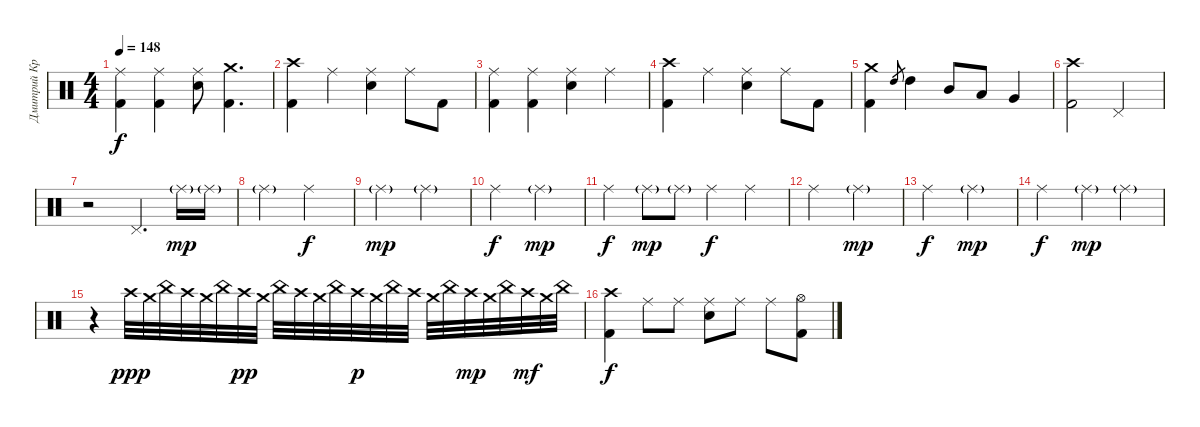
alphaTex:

\track ("Дмитрий Кривенков" "Дмитрий Кр") {instrument percussion}
\staff {score}
\articulation defaults
\ts (4 4)
\tempo 148
\clef neutral
\ks c
("Ride (middle)" "Kick (hit) 2").4{dy f} ("Ride (middle)" "Kick (hit) 2").4 ("Ride (middle)" "Electric Snare (hit)").8 ("Crash medium (hit)" "Kick (hit) 2").4{d} |
("Crash high (hit)" "Kick (hit) 2").4 "Ride (middle)".4 ("Ride (middle)" "Electric Snare (hit)").4 "Ride (middle)".8 "Kick (hit) 2".8 |
("Ride (middle)" "Kick (hit) 2").4 ("Ride (middle)" "Kick (hit) 2").4 ("Ride (middle)" "Electric Snare (hit)").4 "Ride (middle)".4 |
("Crash high (hit)" "Kick (hit) 2").4 "Ride (middle)".4 ("Ride (middle)" "Electric Snare (hit)").4 "Ride (middle)".8 "Kick (hit) 2".8 |
("Crash medium (hit)" "Kick (hit) 2").4 "High Tom (hit)".8{gr} "High Tom (hit)".4 "Mid Tom (hit)".8 "Low Tom (hit)".8 "Very Low Tom (hit)".4 |
("Crash high (hit)" "Kick (hit) 2").2 "Pedal Hi-Hat (hit)".2 |
r.2 "Pedal Hi-Hat (hit)".4{d} "Ride (middle)"{g}.16{dy mp} "Ride (middle)"{g}.16 |
"Ride (middle)"{g}.2 "Ride (middle)".2{dy f} |
"Ride (middle)"{g}.2{dy mp} "Ride (middle)"{g}.2 |
"Ride (middle)".2{dy f} "Ride (middle)"{g}.2{dy mp} |
"Ride (middle)".4{dy f} "Ride (middle)"{g}.8{dy mp} "Ride (middle)"{g}.8 "Ride (middle)".4{dy f} "Ride (middle)".4 |
"Ride (middle)".2 "Ride (middle)"{g}.2{dy mp} |
"Ride (middle)".2{dy f} "Ride (middle)"{g}.2{dy mp} |
"Ride (middle)".2{dy f} "Ride (middle)"{g}.4{dy mp} "Ride (middle)"{g}.4 |
r.4{volume 7} "Crash high (hit)".32{dy ppp} "Crash medium (hit)".32 "China (hit)".32 "Crash high (hit)".32 "Crash medium (hit)".32 "China (hit)".32 "Crash high (hit)".32{dy pp} "Crash medium (hit)".32 "China (hit)".32 "Crash high (hit)".32 "Crash medium (hit)".32 "China (hit)".32 "Crash high (hit)".32{dy p} "Crash medium (hit)".32 "China (hit)".32 "Crash high (hit)".32 "Crash medium (hit)".32 "China (hit)".32 "Crash high (hit)".32{dy mp} "Crash medium (hit)".32 "China (hit)".32 "Crash high (hit)".32{dy mf} "Crash medium (hit)".32 "China (hit)".32 |
("Crash high (hit)" "Kick (hit) 2").4{dy f volume 13} "Ride (middle)".8 "Ride (middle)".8 ("Ride (middle)" "Electric Snare (hit)").8 "Ride (middle)".8 "Ride (middle)".8 ("Hi-Hat (open)" "Kick (hit) 2").8
